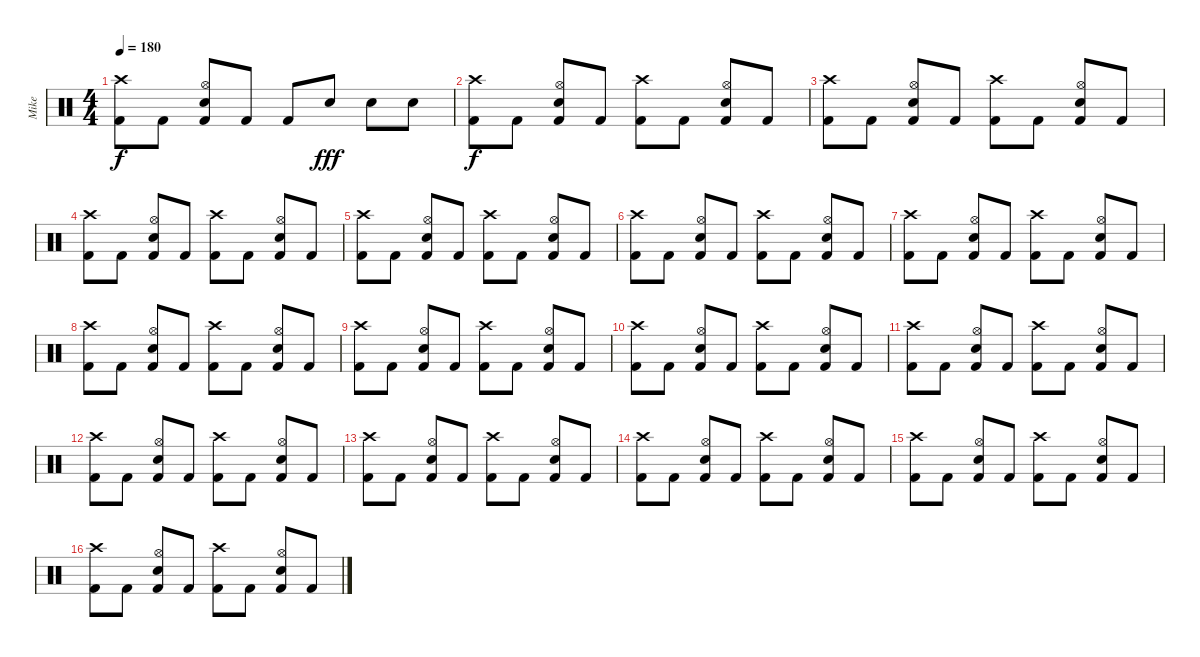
\track ("Mike" "Mike") {instrument percussion}
\staff {score}
\articulation defaults
\ts (4 4)
\tempo 180
\clef neutral
\ks c
("Crash high (hit)" "Kick (hit) 2").8{dy f volume 7} "Kick (hit) 2".8 ("Hi-Hat (open)" "Snare (hit) 2" "Kick (hit) 2").8 "Kick (hit) 2".8 "Kick (hit) 2".8 "Snare (hit) 2".8{dy fff} "Snare (hit) 2".8 "Snare (hit) 2".8 |
("Crash high (hit)" "Kick (hit) 2").8{dy f} "Kick (hit) 2".8 ("Hi-Hat (open)" "Snare (hit) 2" "Kick (hit) 2").8 "Kick (hit) 2".8 ("Crash high (hit)" "Kick (hit) 2").8 "Kick (hit) 2".8 ("Hi-Hat (open)" "Snare (hit) 2" "Kick (hit) 2").8 "Kick (hit) 2".8 |
("Crash high (hit)" "Kick (hit) 2").8 "Kick (hit) 2".8 ("Hi-Hat (open)" "Snare (hit) 2" "Kick (hit) 2").8 "Kick (hit) 2".8 ("Crash high (hit)" "Kick (hit) 2").8 "Kick (hit) 2".8 ("Hi-Hat (open)" "Snare (hit) 2" "Kick (hit) 2").8 "Kick (hit) 2".8 |
("Crash high (hit)" "Kick (hit) 2").8{volume 6} "Kick (hit) 2".8 ("Hi-Hat (open)" "Snare (hit) 2" "Kick (hit) 2").8 "Kick (hit) 2".8 ("Crash high (hit)" "Kick (hit) 2").8 "Kick (hit) 2".8 ("Hi-Hat (open)" "Snare (hit) 2" "Kick (hit) 2").8 "Kick (hit) 2".8 |
("Crash high (hit)" "Kick (hit) 2").8 "Kick (hit) 2".8 ("Hi-Hat (open)" "Snare (hit) 2" "Kick (hit) 2").8 "Kick (hit) 2".8 ("Crash high (hit)" "Kick (hit) 2").8 "Kick (hit) 2".8 ("Hi-Hat (open)" "Snare (hit) 2" "Kick (hit) 2").8 "Kick (hit) 2".8 |
("Crash high (hit)" "Kick (hit) 2").8 "Kick (hit) 2".8 ("Hi-Hat (open)" "Snare (hit) 2" "Kick (hit) 2").8 "Kick (hit) 2".8 ("Crash high (hit)" "Kick (hit) 2").8 "Kick (hit) 2".8 ("Hi-Hat (open)" "Snare (hit) 2" "Kick (hit) 2").8 "Kick (hit) 2".8 |
("Crash high (hit)" "Kick (hit) 2").8{volume 5} "Kick (hit) 2".8 ("Hi-Hat (open)" "Snare (hit) 2" "Kick (hit) 2").8 "Kick (hit) 2".8 ("Crash high (hit)" "Kick (hit) 2").8 "Kick (hit) 2".8 ("Hi-Hat (open)" "Snare (hit) 2" "Kick (hit) 2").8 "Kick (hit) 2".8 |
("Crash high (hit)" "Kick (hit) 2").8 "Kick (hit) 2".8 ("Hi-Hat (open)" "Snare (hit) 2" "Kick (hit) 2").8 "Kick (hit) 2".8 ("Crash high (hit)" "Kick (hit) 2").8 "Kick (hit) 2".8 ("Hi-Hat (open)" "Snare (hit) 2" "Kick (hit) 2").8 "Kick (hit) 2".8 |
("Crash high (hit)" "Kick (hit) 2").8 "Kick (hit) 2".8 ("Hi-Hat (open)" "Snare (hit) 2" "Kick (hit) 2").8 "Kick (hit) 2".8 ("Crash high (hit)" "Kick (hit) 2").8 "Kick (hit) 2".8 ("Hi-Hat (open)" "Snare (hit) 2" "Kick (hit) 2").8 "Kick (hit) 2".8 |
("Crash high (hit)" "Kick (hit) 2").8{volume 4} "Kick (hit) 2".8 ("Hi-Hat (open)" "Snare (hit) 2" "Kick (hit) 2").8 "Kick (hit) 2".8 ("Crash high (hit)" "Kick (hit) 2").8 "Kick (hit) 2".8 ("Hi-Hat (open)" "Snare (hit) 2" "Kick (hit) 2").8 "Kick (hit) 2".8 |
("Crash high (hit)" "Kick (hit) 2").8 "Kick (hit) 2".8 ("Hi-Hat (open)" "Snare (hit) 2" "Kick (hit) 2").8 "Kick (hit) 2".8 ("Crash high (hit)" "Kick (hit) 2").8 "Kick (hit) 2".8 ("Hi-Hat (open)" "Snare (hit) 2" "Kick (hit) 2").8 "Kick (hit) 2".8 |
("Crash high (hit)" "Kick (hit) 2").8 "Kick (hit) 2".8 ("Hi-Hat (open)" "Snare (hit) 2" "Kick (hit) 2").8 "Kick (hit) 2".8 ("Crash high (hit)" "Kick (hit) 2").8 "Kick (hit) 2".8 ("Hi-Hat (open)" "Snare (hit) 2" "Kick (hit) 2").8 "Kick (hit) 2".8 |
("Crash high (hit)" "Kick (hit) 2").8{volume 3} "Kick (hit) 2".8 ("Hi-Hat (open)" "Snare (hit) 2" "Kick (hit) 2").8 "Kick (hit) 2".8 ("Crash high (hit)" "Kick (hit) 2").8 "Kick (hit) 2".8 ("Hi-Hat (open)" "Snare (hit) 2" "Kick (hit) 2").8 "Kick (hit) 2".8 |
("Crash high (hit)" "Kick (hit) 2").8 "Kick (hit) 2".8 ("Hi-Hat (open)" "Snare (hit) 2" "Kick (hit) 2").8 "Kick (hit) 2".8 ("Crash high (hit)" "Kick (hit) 2").8 "Kick (hit) 2".8 ("Hi-Hat (open)" "Snare (hit) 2" "Kick (hit) 2").8 "Kick (hit) 2".8 |
("Crash high (hit)" "Kick (hit) 2").8 "Kick (hit) 2".8 ("Hi-Hat (open)" "Snare (hit) 2" "Kick (hit) 2").8 "Kick (hit) 2".8 ("Crash high (hit)" "Kick (hit) 2").8 "Kick (hit) 2".8 ("Hi-Hat (open)" "Snare (hit) 2" "Kick (hit) 2").8 "Kick (hit) 2".8 |
("Crash high (hit)" "Kick (hit) 2").8{volume 2} "Kick (hit) 2".8 ("Hi-Hat (open)" "Snare (hit) 2" "Kick (hit) 2").8 "Kick (hit) 2".8 ("Crash high (hit)" "Kick (hit) 2").8 "Kick (hit) 2".8 ("Hi-Hat (open)" "Snare (hit) 2" "Kick (hit) 2").8 "Kick (hit) 2".8
